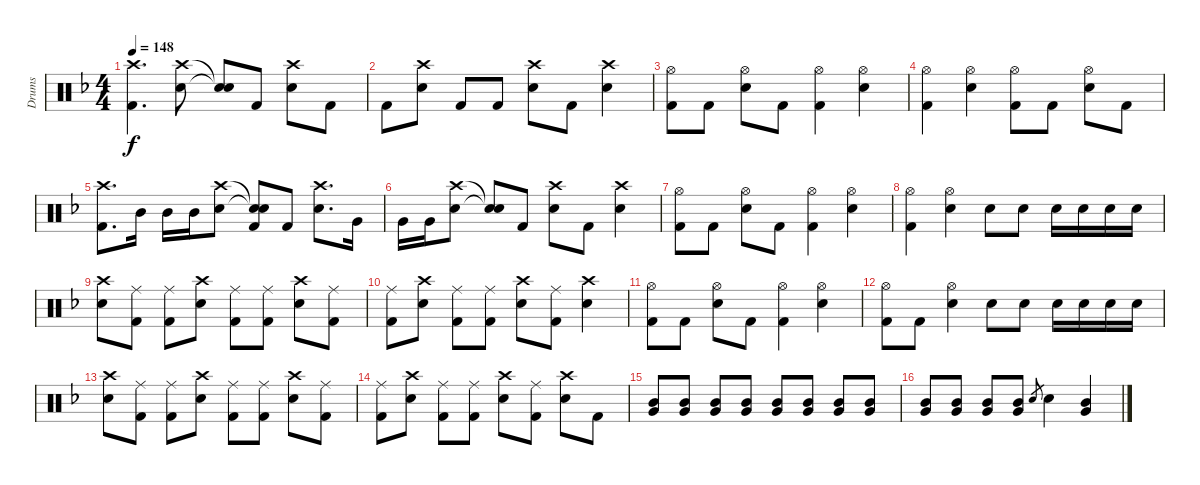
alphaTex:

\track ("Drums" "Drums") {instrument percussion}
\staff {score}
\articulation defaults
\ts (4 4)
\tempo 148
\clef neutral
\ks f
("Crash high (hit)" "Kick (hit) 2").4{d dy f} ("Crash high (hit)" "Snare (hit) 2").8 ("Snare (hit)"{t} "Snare (hit)"{t}).8 "Kick (hit) 2".8 ("Crash high (hit)" "Snare (hit) 2").8 "Kick (hit) 2".8 |
"Kick (hit) 2".8 ("Crash high (hit)" "Snare (hit) 2").8 "Kick (hit) 2".8 "Kick (hit) 2".8 ("Crash high (hit)" "Snare (hit) 2").8 "Kick (hit) 2".8 ("Crash high (hit)" "Snare (hit) 2").4 |
("Hi-Hat (open)" "Kick (hit) 2").8 "Kick (hit) 2".8 ("Hi-Hat (open)" "Snare (hit) 2").8 "Kick (hit) 2".8 ("Hi-Hat (open)" "Kick (hit) 2").4 ("Hi-Hat (open)" "Snare (hit) 2").4 |
("Hi-Hat (open)" "Kick (hit) 2").4 ("Hi-Hat (open)" "Snare (hit) 2").4 ("Hi-Hat (open)" "Kick (hit) 2").8 "Kick (hit) 2".8 ("Hi-Hat (open)" "Snare (hit) 2").8 "Kick (hit) 2".8 |
("Crash high (hit)" "Kick (hit) 2").8{d} "Mid Tom (hit)".16 "Mid Tom (hit)".16 "Mid Tom (hit)".16 ("Crash high (hit)" "Snare (hit) 2").8 ("Snare (hit)"{t} "Snare (hit)"{t} "Kick (hit) 2").8 "Kick (hit) 2".8 ("Crash high (hit)" "Snare (hit) 2").8{d} "Very Low Tom (hit)".16 |
"Very Low Tom (hit)".16 "Very Low Tom (hit)".16 ("Crash high (hit)" "Snare (hit) 2").8 ("Snare (hit)"{t} "Snare (hit)"{t}).8 "Kick (hit) 2".8 ("Crash high (hit)" "Snare (hit) 2").8 "Kick (hit) 2".8 ("Crash high (hit)" "Snare (hit) 2").4 |
("Hi-Hat (open)" "Kick (hit) 2").8 "Kick (hit) 2".8 ("Hi-Hat (open)" "Snare (hit) 2").8 "Kick (hit) 2".8 ("Hi-Hat (open)" "Kick (hit) 2").4 ("Hi-Hat (open)" "Snare (hit) 2").4 |
("Hi-Hat (open)" "Kick (hit) 2").4 ("Hi-Hat (open)" "Snare (hit) 2").4 "Snare (hit) 2".8 "Snare (hit) 2".8 "Snare (hit) 2".16 "Snare (hit) 2".16 "Snare (hit) 2".16 "Snare (hit) 2".16 |
("Crash high (hit)" "Snare (hit) 2").8 ("Ride (middle)" "Kick (hit) 2").8 ("Ride (middle)" "Kick (hit) 2").8 ("Crash high (hit)" "Snare (hit) 2").8 ("Ride (middle)" "Kick (hit) 2").8 ("Ride (middle)" "Kick (hit) 2").8 ("Crash high (hit)" "Snare (hit) 2").8 ("Ride (middle)" "Kick (hit) 2").8 |
("Ride (middle)" "Kick (hit) 2").8 ("Crash high (hit)" "Snare (hit) 2").8 ("Ride (middle)" "Kick (hit) 2").8 ("Ride (middle)" "Kick (hit) 2").8 ("Crash high (hit)" "Snare (hit) 2").8 ("Ride (middle)" "Kick (hit) 2").8 ("Crash high (hit)" "Snare (hit) 2").4 |
("Hi-Hat (open)" "Kick (hit) 2").8 "Kick (hit) 2".8 ("Hi-Hat (open)" "Snare (hit) 2").8 "Kick (hit) 2".8 ("Hi-Hat (open)" "Kick (hit) 2").4 ("Hi-Hat (open)" "Snare (hit) 2").4 |
("Hi-Hat (open)" "Kick (hit) 2").8 "Kick (hit) 2".8 ("Hi-Hat (open)" "Snare (hit) 2").4 "Snare (hit) 2".8 "Snare (hit) 2".8 "Snare (hit) 2".16 "Snare (hit) 2".16 "Snare (hit) 2".16 "Snare (hit) 2".16 |
("Crash high (hit)" "Snare (hit) 2").8 ("Ride (middle)" "Kick (hit) 2").8 ("Ride (middle)" "Kick (hit) 2").8 ("Crash high (hit)" "Snare (hit) 2").8 ("Ride (middle)" "Kick (hit) 2").8 ("Ride (middle)" "Kick (hit) 2").8 ("Crash high (hit)" "Snare (hit) 2").8 ("Ride (middle)" "Kick (hit) 2").8 |
("Ride (middle)" "Kick (hit) 2").8 ("Crash high (hit)" "Snare (hit) 2").8 ("Ride (middle)" "Kick (hit) 2").8 ("Ride (middle)" "Kick (hit) 2").8 ("Crash high (hit)" "Snare (hit) 2").8 ("Ride (middle)" "Kick (hit) 2").8 ("Crash high (hit)" "Snare (hit) 2").8 "Kick (hit) 2".8 |
("Mid Tom (hit)" "Very Low Tom (hit)").8 ("Mid Tom (hit)" "Very Low Tom (hit)").8 ("Mid Tom (hit)" "Very Low Tom (hit)").8 ("Mid Tom (hit)" "Very Low Tom (hit)").8 ("Mid Tom (hit)" "Very Low Tom (hit)").8 ("Mid Tom (hit)" "Very Low Tom (hit)").8 ("Mid Tom (hit)" "Very Low Tom (hit)").8 ("Mid Tom (hit)" "Very Low Tom (hit)").8 |
("Mid Tom (hit)" "Very Low Tom (hit)").8 ("Mid Tom (hit)" "Very Low Tom (hit)").8 ("Mid Tom (hit)" "Very Low Tom (hit)").8 ("Mid Tom (hit)" "Very Low Tom (hit)").8 "Snare (hit) 2".8{gr} "Snare (hit) 2".4 ("Mid Tom (hit)" "Very Low Tom (hit)").4
